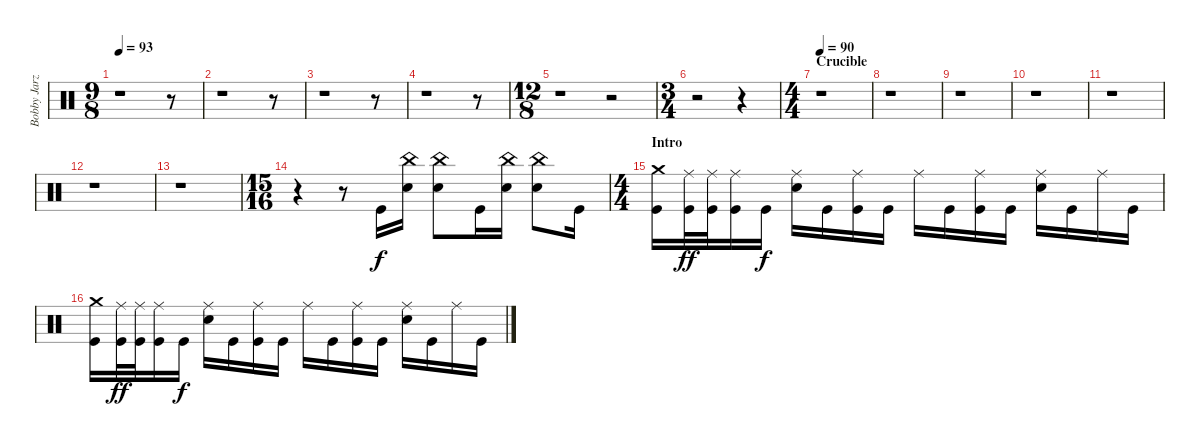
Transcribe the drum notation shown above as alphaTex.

\track ("Bobby Jarzombek" "Bobby Jarz") {instrument percussion}
\staff {score}
\articulation defaults
\ts (9 8)
\tempo 93
\clef neutral
\ks c
r.1{dy f} r.8 |
r.1 r.8 |
r.1 r.8 |
r.1 r.8 |
\ts (12 8)
r.1 r.2 |
\ts (3 4)
r.2 r.4 |
\ts (4 4)
\section ("" "Crucible")
\tempo 90
r.1 |
r.1 |
r.1 |
r.1 |
r.1 |
r.1 |
r.1 |
\ts (15 16)
r.4 r.8 "Kick (hit)".16 ("China (hit)" "Electric Snare (hit)").16 ("China (hit)" "Electric Snare (hit)").8 "Kick (hit)".16 ("China (hit)" "Electric Snare (hit)").16 ("China (hit)" "Electric Snare (hit)").8 "Kick (hit)".16 |
\ts (4 4)
\section ("" "Intro")
("Crash medium (hit)" "Kick (hit)").16 ("Ride (middle)" "Kick (hit)").32{dy ff} ("Ride (middle)" "Kick (hit)").32 ("Ride (middle)" "Kick (hit)").16 "Kick (hit)".16{dy f} ("Ride (middle)" "Electric Snare (hit)").16 "Kick (hit)".16 ("Ride (middle)" "Kick (hit)").16 "Kick (hit)".16 "Ride (middle)".16 "Kick (hit)".16 ("Ride (middle)" "Kick (hit)").16 "Kick (hit)".16 ("Ride (middle)" "Electric Snare (hit)").16 "Kick (hit)".16 "Ride (middle)".16 "Kick (hit)".16 |
("Crash medium (hit)" "Kick (hit)").16 ("Ride (middle)" "Kick (hit)").32{dy ff} ("Ride (middle)" "Kick (hit)").32 ("Ride (middle)" "Kick (hit)").16 "Kick (hit)".16{dy f} ("Ride (middle)" "Electric Snare (hit)").16 "Kick (hit)".16 ("Ride (middle)" "Kick (hit)").16 "Kick (hit)".16 "Ride (middle)".16 "Kick (hit)".16 ("Ride (middle)" "Kick (hit)").16 "Kick (hit)".16 ("Ride (middle)" "Electric Snare (hit)").16 "Kick (hit)".16 "Ride (middle)".16 "Kick (hit)".16
